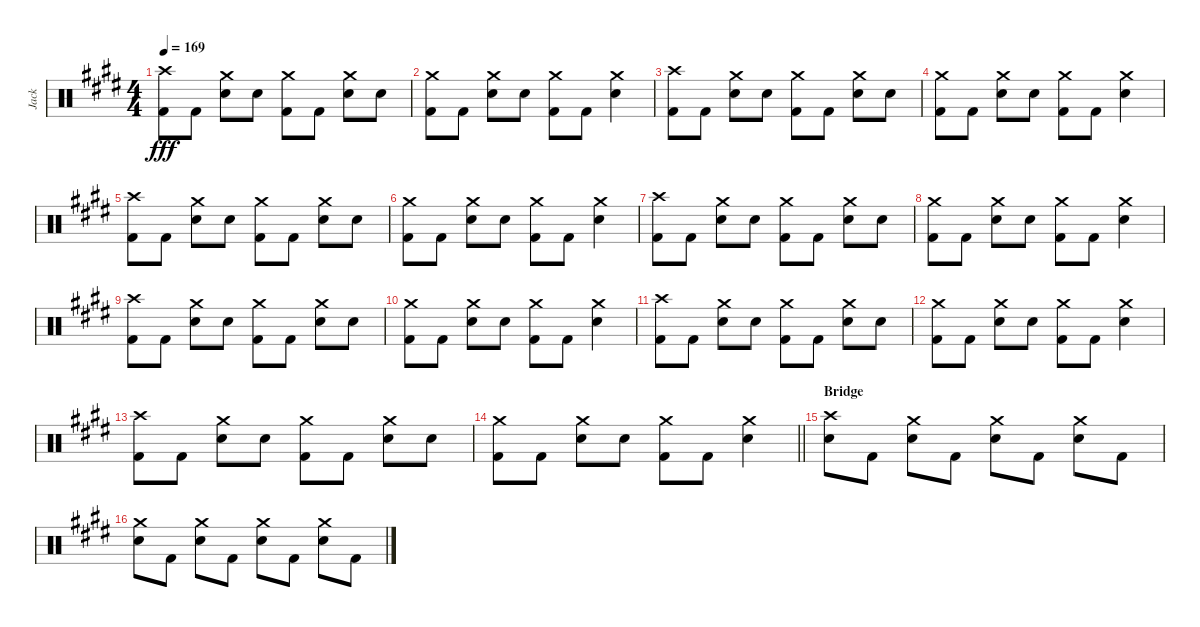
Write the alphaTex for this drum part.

\track ("Jack" "Jack") {instrument percussion}
\staff {score}
\articulation defaults
\ts (4 4)
\tempo 169
\clef neutral
\ks c#minor
("Crash high (hit)" "Kick (hit) 2").8{dy fff} "Kick (hit) 2".8 ("Crash medium (hit)" "Electric Snare (hit)").8 "Electric Snare (hit)".8 ("Crash medium (hit)" "Kick (hit) 2").8 "Kick (hit) 2".8 ("Crash medium (hit)" "Electric Snare (hit)").8 "Electric Snare (hit)".8 |
("Crash medium (hit)" "Kick (hit) 2").8 "Kick (hit) 2".8 ("Crash medium (hit)" "Electric Snare (hit)").8 "Electric Snare (hit)".8 ("Crash medium (hit)" "Kick (hit) 2").8 "Kick (hit) 2".8 ("Crash medium (hit)" "Electric Snare (hit)").4 |
("Crash high (hit)" "Kick (hit) 2").8 "Kick (hit) 2".8 ("Crash medium (hit)" "Electric Snare (hit)").8 "Electric Snare (hit)".8 ("Crash medium (hit)" "Kick (hit) 2").8 "Kick (hit) 2".8 ("Crash medium (hit)" "Electric Snare (hit)").8 "Electric Snare (hit)".8 |
("Crash medium (hit)" "Kick (hit) 2").8 "Kick (hit) 2".8 ("Crash medium (hit)" "Electric Snare (hit)").8 "Electric Snare (hit)".8 ("Crash medium (hit)" "Kick (hit) 2").8 "Kick (hit) 2".8 ("Crash medium (hit)" "Electric Snare (hit)").4 |
("Crash high (hit)" "Kick (hit) 2").8 "Kick (hit) 2".8 ("Crash medium (hit)" "Electric Snare (hit)").8 "Electric Snare (hit)".8 ("Crash medium (hit)" "Kick (hit) 2").8 "Kick (hit) 2".8 ("Crash medium (hit)" "Electric Snare (hit)").8 "Electric Snare (hit)".8 |
("Crash medium (hit)" "Kick (hit) 2").8 "Kick (hit) 2".8 ("Crash medium (hit)" "Electric Snare (hit)").8 "Electric Snare (hit)".8 ("Crash medium (hit)" "Kick (hit) 2").8 "Kick (hit) 2".8 ("Crash medium (hit)" "Electric Snare (hit)").4 |
("Crash high (hit)" "Kick (hit) 2").8 "Kick (hit) 2".8 ("Crash medium (hit)" "Electric Snare (hit)").8 "Electric Snare (hit)".8 ("Crash medium (hit)" "Kick (hit) 2").8 "Kick (hit) 2".8 ("Crash medium (hit)" "Electric Snare (hit)").8 "Electric Snare (hit)".8 |
("Crash medium (hit)" "Kick (hit) 2").8 "Kick (hit) 2".8 ("Crash medium (hit)" "Electric Snare (hit)").8 "Electric Snare (hit)".8 ("Crash medium (hit)" "Kick (hit) 2").8 "Kick (hit) 2".8 ("Crash medium (hit)" "Electric Snare (hit)").4 |
("Crash high (hit)" "Kick (hit) 2").8 "Kick (hit) 2".8 ("Crash medium (hit)" "Electric Snare (hit)").8 "Electric Snare (hit)".8 ("Crash medium (hit)" "Kick (hit) 2").8 "Kick (hit) 2".8 ("Crash medium (hit)" "Electric Snare (hit)").8 "Electric Snare (hit)".8 |
("Crash medium (hit)" "Kick (hit) 2").8 "Kick (hit) 2".8 ("Crash medium (hit)" "Electric Snare (hit)").8 "Electric Snare (hit)".8 ("Crash medium (hit)" "Kick (hit) 2").8 "Kick (hit) 2".8 ("Crash medium (hit)" "Electric Snare (hit)").4 |
("Crash high (hit)" "Kick (hit) 2").8 "Kick (hit) 2".8 ("Crash medium (hit)" "Electric Snare (hit)").8 "Electric Snare (hit)".8 ("Crash medium (hit)" "Kick (hit) 2").8 "Kick (hit) 2".8 ("Crash medium (hit)" "Electric Snare (hit)").8 "Electric Snare (hit)".8 |
("Crash medium (hit)" "Kick (hit) 2").8 "Kick (hit) 2".8 ("Crash medium (hit)" "Electric Snare (hit)").8 "Electric Snare (hit)".8 ("Crash medium (hit)" "Kick (hit) 2").8 "Kick (hit) 2".8 ("Crash medium (hit)" "Electric Snare (hit)").4 |
("Crash high (hit)" "Kick (hit) 2").8 "Kick (hit) 2".8 ("Crash medium (hit)" "Electric Snare (hit)").8 "Electric Snare (hit)".8 ("Crash medium (hit)" "Kick (hit) 2").8 "Kick (hit) 2".8 ("Crash medium (hit)" "Electric Snare (hit)").8 "Electric Snare (hit)".8 |
\barLineRight lightlight
("Crash medium (hit)" "Kick (hit) 2").8 "Kick (hit) 2".8 ("Crash medium (hit)" "Electric Snare (hit)").8 "Electric Snare (hit)".8 ("Crash medium (hit)" "Kick (hit) 2").8 "Kick (hit) 2".8 ("Crash medium (hit)" "Electric Snare (hit)").4 |
\section ("" "Bridge")
("Crash high (hit)" "Electric Snare (hit)").8 "Kick (hit) 2".8 ("Crash medium (hit)" "Electric Snare (hit)").8 "Kick (hit) 2".8 ("Crash medium (hit)" "Electric Snare (hit)").8 "Kick (hit) 2".8 ("Crash medium (hit)" "Electric Snare (hit)").8 "Kick (hit) 2".8 |
("Crash medium (hit)" "Electric Snare (hit)").8 "Kick (hit) 2".8 ("Crash medium (hit)" "Electric Snare (hit)").8 "Kick (hit) 2".8 ("Crash medium (hit)" "Electric Snare (hit)").8 "Kick (hit) 2".8 ("Crash medium (hit)" "Electric Snare (hit)").8 "Kick (hit) 2".8
